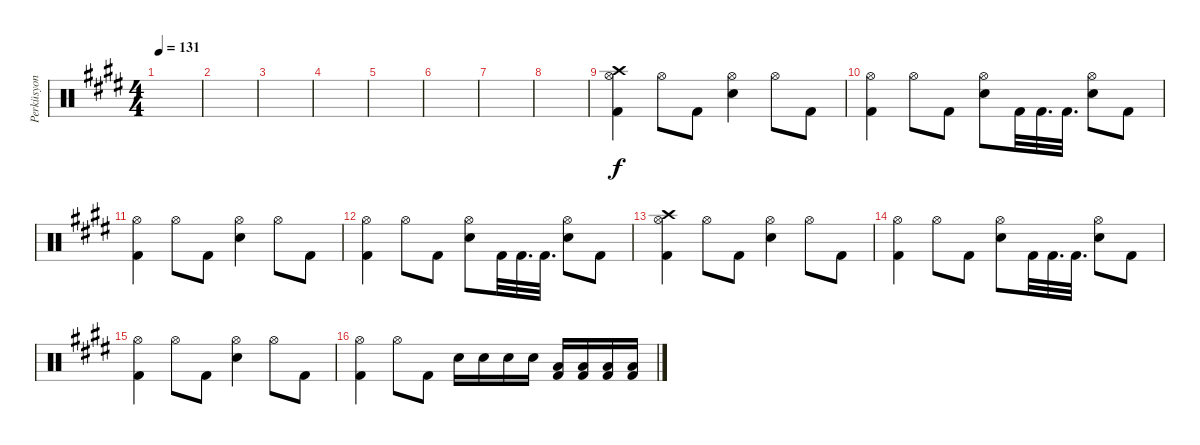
\track ("Perküsyon" "Perküsyon") {instrument percussion}
\staff {score}
\articulation defaults
\ts (4 4)
\tempo 131
\clef neutral
\ks e
|
\ks c#minor
|
|
|
\ks e
|
\ks c#minor
|
|
|
\ks e
("Hi-Hat (open)" "Crash high (hit)" "Kick (hit) 2").4 "Hi-Hat (open)".8 "Kick (hit) 2".8 ("Hi-Hat (open)" "Snare (hit) 2").4 "Hi-Hat (open)".8 "Kick (hit) 2".8 |
\ks c#minor
("Hi-Hat (open)" "Kick (hit) 2").4 "Hi-Hat (open)".8 "Kick (hit) 2".8 ("Hi-Hat (open)" "Snare (hit) 2").8 "Kick (hit) 2".32 "Kick (hit) 2".32{d} "Kick (hit) 2".32{d} ("Hi-Hat (open)" "Snare (hit) 2").8 "Kick (hit) 2".8 |
\ks e
("Hi-Hat (open)" "Kick (hit) 2").4 "Hi-Hat (open)".8 "Kick (hit) 2".8 ("Hi-Hat (open)" "Snare (hit) 2").4 "Hi-Hat (open)".8 "Kick (hit) 2".8 |
\ks c#minor
("Hi-Hat (open)" "Kick (hit) 2").4 "Hi-Hat (open)".8 "Kick (hit) 2".8 ("Hi-Hat (open)" "Snare (hit) 2").8 "Kick (hit) 2".32 "Kick (hit) 2".32{d} "Kick (hit) 2".32{d} ("Hi-Hat (open)" "Snare (hit) 2").8 "Kick (hit) 2".8 |
\ks e
("Hi-Hat (open)" "Crash high (hit)" "Kick (hit) 2").4 "Hi-Hat (open)".8 "Kick (hit) 2".8 ("Hi-Hat (open)" "Snare (hit) 2").4 "Hi-Hat (open)".8 "Kick (hit) 2".8 |
\ks c#minor
("Hi-Hat (open)" "Kick (hit) 2").4 "Hi-Hat (open)".8 "Kick (hit) 2".8 ("Hi-Hat (open)" "Snare (hit) 2").8 "Kick (hit) 2".32 "Kick (hit) 2".32{d} "Kick (hit) 2".32{d} ("Hi-Hat (open)" "Snare (hit) 2").8 "Kick (hit) 2".8 |
\ks e
("Hi-Hat (open)" "Kick (hit) 2").4 "Hi-Hat (open)".8 "Kick (hit) 2".8 ("Hi-Hat (open)" "Snare (hit) 2").4 "Hi-Hat (open)".8 "Kick (hit) 2".8 |
\ks c#minor
("Hi-Hat (open)" "Kick (hit) 2").4 "Hi-Hat (open)".8 "Kick (hit) 2".8 "Snare (hit) 2".16 "Snare (hit) 2".16 "Snare (hit) 2".16 "Snare (hit) 2".16 ("Low Tom (hit)" "Kick (hit) 2").16 ("Low Tom (hit)" "Kick (hit) 2").16 ("Low Tom (hit)" "Kick (hit) 2").16 ("Low Tom (hit)" "Kick (hit) 2").16
